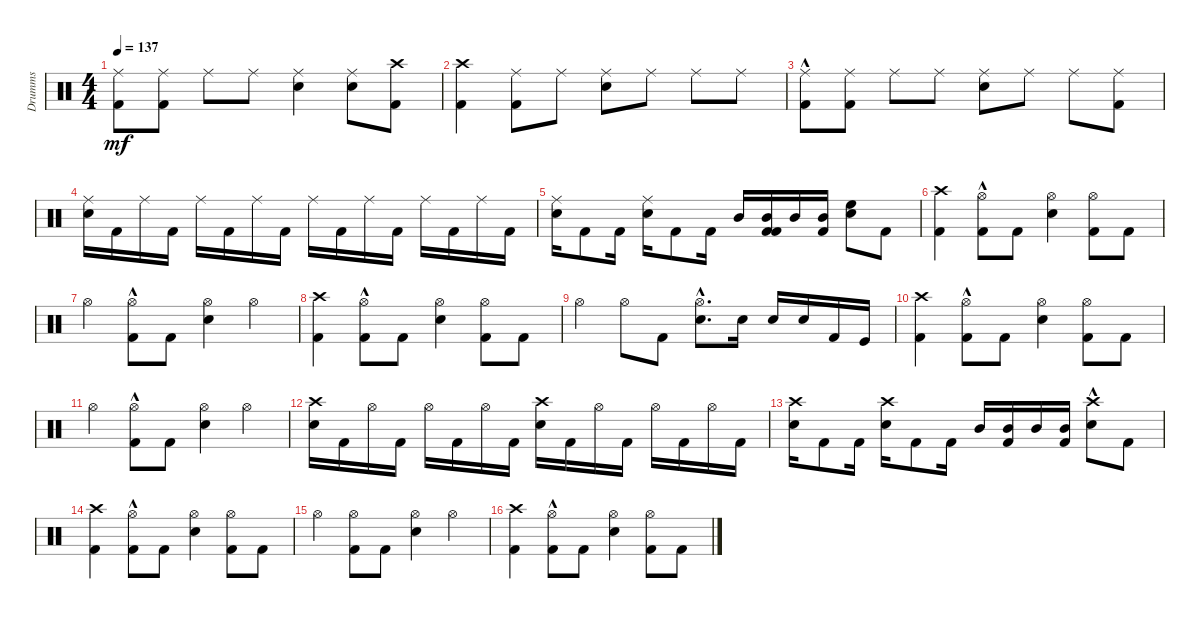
\track ("Drumms" "Drumms") {instrument percussion}
\staff {score}
\articulation defaults
\ts (4 4)
\tempo 137
\clef neutral
\ks c
("Ride (middle)" "Kick (hit) 2").8{dy mf} ("Ride (middle)" "Kick (hit) 2").8 "Ride (middle)".8 "Ride (middle)".8 ("Ride (middle)" "Snare (hit) 2").4 ("Ride (middle)" "Snare (hit) 2").8 ("Crash high (hit)" "Kick (hit) 2").8 |
("Crash high (hit)" "Kick (hit) 2").4 ("Ride (middle)" "Kick (hit) 2").8 "Ride (middle)".8 ("Ride (middle)" "Snare (hit) 2").8 "Ride (middle)".8 "Ride (middle)".8 "Ride (middle)".8 |
("Ride (middle)"{hac} "Kick (hit) 2").8 ("Ride (middle)" "Kick (hit) 2").8 "Ride (middle)".8 "Ride (middle)".8 ("Ride (middle)" "Snare (hit) 2").8 "Ride (middle)".8 "Ride (middle)".8 ("Ride (middle)" "Kick (hit) 2").8 |
("Snare (hit) 2" "Ride (middle)").16 "Kick (hit) 2".16 "Ride (middle)".16 "Kick (hit) 2".16 "Ride (middle)".16 "Kick (hit) 2".16 "Ride (middle)".16 "Kick (hit) 2".16 "Ride (middle)".16 "Kick (hit) 2".16 "Ride (middle)".16 "Kick (hit) 2".16 "Ride (middle)".16 "Kick (hit) 2".16 "Ride (middle)".16 "Kick (hit) 2".16 |
("Ride (middle)" "Snare (hit) 2").16 "Kick (hit) 2".8 "Kick (hit) 2".16 ("Snare (hit) 2" "Ride (middle)").16 "Kick (hit) 2".8 "Kick (hit) 2".16 "Mid Tom (hit)".16 ("Kick (hit) 2" "Mid Tom (hit)" "Kick (hit) 2").16 "Mid Tom (hit)".16 ("Mid Tom (hit)" "Kick (hit) 2").16 ("Snare (hit) 2" "High Floor Tom (hit)").8 "Kick (hit) 2".8 |
\section ("" "")
("Kick (hit) 2" "Crash high (hit)").4 ("Hi-Hat (open)"{hac} "Kick (hit) 2").8 "Kick (hit) 2".8 ("Hi-Hat (open)" "Snare (hit) 2").4 ("Hi-Hat (open)" "Kick (hit) 2").8 "Kick (hit) 2".8 |
"Hi-Hat (open)".4 ("Hi-Hat (open)"{hac} "Kick (hit) 2").8 "Kick (hit) 2".8 ("Snare (hit) 2" "Hi-Hat (open)").4 "Hi-Hat (open)".4 |
("Crash high (hit)" "Kick (hit) 2").4 ("Kick (hit) 2"{hac} "Hi-Hat (open)").8 "Kick (hit) 2".8 ("Hi-Hat (open)" "Snare (hit) 2").4 ("Kick (hit) 2" "Hi-Hat (open)").8 "Kick (hit) 2".8 |
"Hi-Hat (open)".4 "Hi-Hat (open)".8 "Kick (hit) 2".8 ("Hi-Hat (open)"{hac} "Snare (hit) 2").8{d} "Snare (hit) 2".16 "Snare (hit) 2".16 "Snare (hit) 2".16 "Kick (hit) 2".16 "Kick (hit)".16 |
("Kick (hit) 2" "Crash high (hit)").4 ("Hi-Hat (open)"{hac} "Kick (hit) 2").8 "Kick (hit) 2".8 ("Hi-Hat (open)" "Snare (hit) 2").4 ("Hi-Hat (open)" "Kick (hit) 2").8 "Kick (hit) 2".8 |
"Hi-Hat (open)".4 ("Hi-Hat (open)"{hac} "Kick (hit) 2").8 "Kick (hit) 2".8 ("Snare (hit) 2" "Hi-Hat (open)").4 "Hi-Hat (open)".4 |
("Crash high (hit)" "Snare (hit) 2").16 "Kick (hit) 2".16 "Hi-Hat (open)".16 "Kick (hit) 2".16 "Hi-Hat (open)".16 "Kick (hit) 2".16 "Hi-Hat (open)".16 "Kick (hit) 2".16 ("Crash high (hit)" "Snare (hit) 2").16 "Kick (hit) 2".16 "Hi-Hat (open)".16 "Kick (hit) 2".16 "Hi-Hat (open)".16 "Kick (hit) 2".16 "Hi-Hat (open)".16 "Kick (hit) 2".16 |
("Crash high (hit)" "Snare (hit) 2").16 "Kick (hit) 2".8 "Kick (hit) 2".16 ("Snare (hit) 2" "Crash high (hit)").16 "Kick (hit) 2".8 "Kick (hit) 2".16 "Mid Tom (hit)".16 ("Mid Tom (hit)" "Kick (hit) 2").16 "Mid Tom (hit)".16 ("Mid Tom (hit)" "Kick (hit) 2").16 ("Snare (hit) 2"{hac} "Crash high (hit)").8 "Kick (hit) 2".8 |
("Kick (hit) 2" "Crash high (hit)").4 ("Hi-Hat (open)"{hac} "Kick (hit) 2").8 "Kick (hit) 2".8 ("Hi-Hat (open)" "Snare (hit) 2").4 ("Hi-Hat (open)" "Kick (hit) 2").8 "Kick (hit) 2".8 |
"Hi-Hat (open)".4 ("Hi-Hat (open)" "Kick (hit) 2").8 "Kick (hit) 2".8 ("Hi-Hat (open)" "Snare (hit) 2").4 "Hi-Hat (open)".4 |
("Kick (hit) 2" "Crash high (hit)").4 ("Hi-Hat (open)"{hac} "Kick (hit) 2").8 "Kick (hit) 2".8 ("Hi-Hat (open)" "Snare (hit) 2").4 ("Hi-Hat (open)" "Kick (hit) 2").8 "Kick (hit) 2".8
